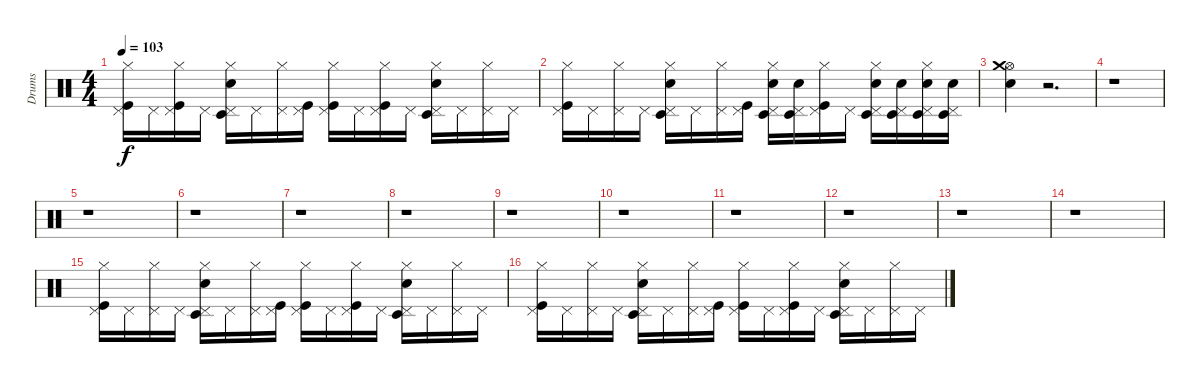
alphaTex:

\track ("Drums" "Drums") {instrument percussion}
\staff {score}
\articulation defaults
\ts (4 4)
\tempo 103
\clef neutral
\ks c
("Hi-Hat (closed)" "Kick (hit)" "Pedal Hi-Hat (hit)").16{dy f} "Pedal Hi-Hat (hit)".16 ("Kick (hit)" "Hi-Hat (closed)" "Pedal Hi-Hat (hit)").16 "Pedal Hi-Hat (hit)".16 ("Timbale low (hit)" "Hi-Hat (closed)" "Electric Snare (hit)" "Pedal Hi-Hat (hit)").16 "Pedal Hi-Hat (hit)".16 ("Hi-Hat (closed)" "Pedal Hi-Hat (hit)").16 ("Kick (hit)" "Pedal Hi-Hat (hit)").16 ("Kick (hit)" "Hi-Hat (closed)" "Pedal Hi-Hat (hit)").16 "Pedal Hi-Hat (hit)".16 ("Kick (hit)" "Hi-Hat (closed)" "Pedal Hi-Hat (hit)").16 "Pedal Hi-Hat (hit)".16 ("Timbale low (hit)" "Electric Snare (hit)" "Hi-Hat (closed)" "Pedal Hi-Hat (hit)").16 "Pedal Hi-Hat (hit)".16 ("Hi-Hat (closed)" "Pedal Hi-Hat (hit)").16 "Pedal Hi-Hat (hit)".16 |
("Hi-Hat (closed)" "Kick (hit)" "Pedal Hi-Hat (hit)").16 "Pedal Hi-Hat (hit)".16 ("Hi-Hat (closed)" "Pedal Hi-Hat (hit)").16 "Pedal Hi-Hat (hit)".16 ("Hi-Hat (closed)" "Electric Snare (hit)" "Timbale low (hit)" "Pedal Hi-Hat (hit)").16 "Pedal Hi-Hat (hit)".16 ("Hi-Hat (closed)" "Pedal Hi-Hat (hit)").16 ("Pedal Hi-Hat (hit)" "Kick (hit)").16 ("Timbale low (hit)" "Hi-Hat (closed)" "Pedal Hi-Hat (hit)" "Electric Snare (hit)").16 ("Timbale low (hit)" "Electric Snare (hit)" "Pedal Hi-Hat (hit)").16 ("Kick (hit)" "Hi-Hat (closed)" "Pedal Hi-Hat (hit)").16 "Pedal Hi-Hat (hit)".16 ("Electric Snare (hit)" "Hi-Hat (closed)" "Timbale low (hit)" "Pedal Hi-Hat (hit)").16 ("Timbale low (hit)" "Electric Snare (hit)" "Pedal Hi-Hat (hit)").16 ("Timbale low (hit)" "Electric Snare (hit)" "Hi-Hat (closed)" "Pedal Hi-Hat (hit)").16 ("Timbale low (hit)" "Electric Snare (hit)" "Pedal Hi-Hat (hit)").16 |
("Electric Snare (hit)" "Hi-Hat (open)" "Crash medium (hit)").4 r.2{d} |
r.1 |
r.1 |
r.1 |
r.1 |
r.1 |
r.1 |
r.1 |
r.1 |
r.1 |
r.1 |
r.1 |
("Hi-Hat (closed)" "Kick (hit)" "Pedal Hi-Hat (hit)").16 "Pedal Hi-Hat (hit)".16 ("Hi-Hat (closed)" "Pedal Hi-Hat (hit)").16 "Pedal Hi-Hat (hit)".16 ("Hi-Hat (closed)" "Timbale low (hit)" "Electric Snare (hit)" "Pedal Hi-Hat (hit)").16 "Pedal Hi-Hat (hit)".16 ("Hi-Hat (closed)" "Pedal Hi-Hat (hit)").16 ("Kick (hit)" "Pedal Hi-Hat (hit)").16 ("Hi-Hat (closed)" "Kick (hit)" "Pedal Hi-Hat (hit)").16 "Pedal Hi-Hat (hit)".16 ("Hi-Hat (closed)" "Kick (hit)" "Pedal Hi-Hat (hit)").16 "Pedal Hi-Hat (hit)".16 ("Timbale low (hit)" "Electric Snare (hit)" "Hi-Hat (closed)" "Pedal Hi-Hat (hit)").16 "Pedal Hi-Hat (hit)".16 ("Hi-Hat (closed)" "Pedal Hi-Hat (hit)").16 "Pedal Hi-Hat (hit)".16 |
("Hi-Hat (closed)" "Kick (hit)" "Pedal Hi-Hat (hit)").16 "Pedal Hi-Hat (hit)".16 ("Hi-Hat (closed)" "Pedal Hi-Hat (hit)").16 "Pedal Hi-Hat (hit)".16 ("Timbale low (hit)" "Hi-Hat (closed)" "Electric Snare (hit)" "Pedal Hi-Hat (hit)").16 "Pedal Hi-Hat (hit)".16 ("Hi-Hat (closed)" "Pedal Hi-Hat (hit)").16 ("Kick (hit)" "Pedal Hi-Hat (hit)").16 ("Hi-Hat (closed)" "Kick (hit)" "Pedal Hi-Hat (hit)").16 "Pedal Hi-Hat (hit)".16 ("Hi-Hat (closed)" "Kick (hit)" "Pedal Hi-Hat (hit)").16 "Pedal Hi-Hat (hit)".16 ("Electric Snare (hit)" "Hi-Hat (closed)" "Timbale low (hit)" "Pedal Hi-Hat (hit)").16 "Pedal Hi-Hat (hit)".16 ("Hi-Hat (closed)" "Pedal Hi-Hat (hit)").16 "Pedal Hi-Hat (hit)".16
